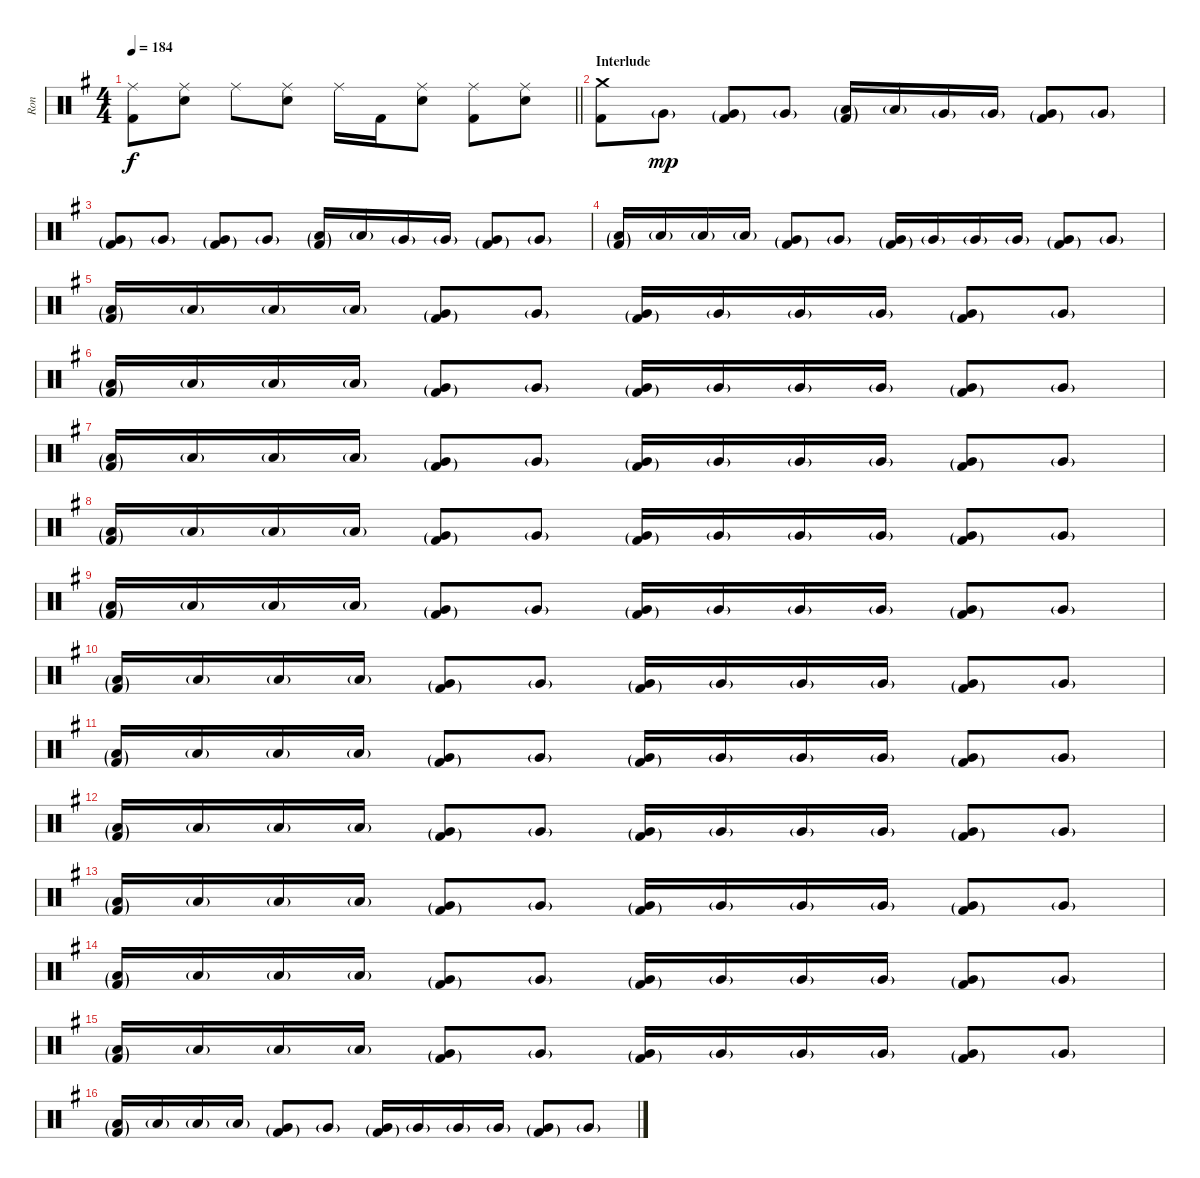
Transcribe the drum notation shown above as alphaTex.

\track ("Ron" "Ron") {instrument percussion}
\staff {score}
\articulation defaults
\ts (4 4)
\tempo 184
\clef neutral
\barLineRight lightlight
\ks eminor
("Ride (middle)" "Kick (hit) 2").8{dy f} ("Ride (middle)" "Electric Snare (hit)").8 "Ride (middle)".8 ("Ride (middle)" "Electric Snare (hit)").8 "Ride (middle)".16 "Kick (hit) 2".16 ("Ride (middle)" "Electric Snare (hit)").8 ("Ride (middle)" "Kick (hit) 2").8 ("Ride (middle)" "Electric Snare (hit)").8 |
\section ("" "Interlude")
("Crash medium (hit)" "Kick (hit) 2").8{volume 16} "Very Low Tom (hit)"{g}.8{dy mp} ("Very Low Tom (hit)"{g} "Kick (hit) 2"{g}).8 "Very Low Tom (hit)"{g}.8 ("Low Tom (hit)"{g} "Kick (hit) 2"{g}).16 "Low Tom (hit)"{g}.16 "Very Low Tom (hit)"{g}.16 "Very Low Tom (hit)"{g}.16 ("Very Low Tom (hit)"{g} "Kick (hit) 2"{g}).8 "Very Low Tom (hit)"{g}.8 |
("Very Low Tom (hit)"{g} "Kick (hit) 2"{g}).8 "Very Low Tom (hit)"{g}.8 ("Very Low Tom (hit)"{g} "Kick (hit) 2"{g}).8 "Very Low Tom (hit)"{g}.8 ("Low Tom (hit)"{g} "Kick (hit) 2"{g}).16 "Low Tom (hit)"{g}.16 "Very Low Tom (hit)"{g}.16 "Very Low Tom (hit)"{g}.16 ("Very Low Tom (hit)"{g} "Kick (hit) 2"{g}).8 "Very Low Tom (hit)"{g}.8 |
("Low Tom (hit)"{g} "Kick (hit) 2"{g}).16 "Low Tom (hit)"{g}.16 "Low Tom (hit)"{g}.16 "Low Tom (hit)"{g}.16 ("Very Low Tom (hit)"{g} "Kick (hit) 2"{g}).8 "Very Low Tom (hit)"{g}.8 ("Very Low Tom (hit)"{g} "Kick (hit) 2"{g}).16 "Very Low Tom (hit)"{g}.16 "Very Low Tom (hit)"{g}.16 "Very Low Tom (hit)"{g}.16 ("Very Low Tom (hit)"{g} "Kick (hit) 2"{g}).8 "Very Low Tom (hit)"{g}.8 |
("Low Tom (hit)"{g} "Kick (hit) 2"{g}).16 "Low Tom (hit)"{g}.16 "Low Tom (hit)"{g}.16 "Low Tom (hit)"{g}.16 ("Very Low Tom (hit)"{g} "Kick (hit) 2"{g}).8 "Very Low Tom (hit)"{g}.8 ("Very Low Tom (hit)"{g} "Kick (hit) 2"{g}).16 "Very Low Tom (hit)"{g}.16 "Very Low Tom (hit)"{g}.16 "Very Low Tom (hit)"{g}.16 ("Very Low Tom (hit)"{g} "Kick (hit) 2"{g}).8 "Very Low Tom (hit)"{g}.8 |
("Low Tom (hit)"{g} "Kick (hit) 2"{g}).16 "Low Tom (hit)"{g}.16 "Low Tom (hit)"{g}.16 "Low Tom (hit)"{g}.16 ("Very Low Tom (hit)"{g} "Kick (hit) 2"{g}).8 "Very Low Tom (hit)"{g}.8 ("Very Low Tom (hit)"{g} "Kick (hit) 2"{g}).16 "Very Low Tom (hit)"{g}.16 "Very Low Tom (hit)"{g}.16 "Very Low Tom (hit)"{g}.16 ("Very Low Tom (hit)"{g} "Kick (hit) 2"{g}).8 "Very Low Tom (hit)"{g}.8 |
("Low Tom (hit)"{g} "Kick (hit) 2"{g}).16 "Low Tom (hit)"{g}.16 "Low Tom (hit)"{g}.16 "Low Tom (hit)"{g}.16 ("Very Low Tom (hit)"{g} "Kick (hit) 2"{g}).8 "Very Low Tom (hit)"{g}.8 ("Very Low Tom (hit)"{g} "Kick (hit) 2"{g}).16 "Very Low Tom (hit)"{g}.16 "Very Low Tom (hit)"{g}.16 "Very Low Tom (hit)"{g}.16 ("Very Low Tom (hit)"{g} "Kick (hit) 2"{g}).8 "Very Low Tom (hit)"{g}.8 |
("Low Tom (hit)"{g} "Kick (hit) 2"{g}).16 "Low Tom (hit)"{g}.16 "Low Tom (hit)"{g}.16 "Low Tom (hit)"{g}.16 ("Very Low Tom (hit)"{g} "Kick (hit) 2"{g}).8 "Very Low Tom (hit)"{g}.8 ("Very Low Tom (hit)"{g} "Kick (hit) 2"{g}).16 "Very Low Tom (hit)"{g}.16 "Very Low Tom (hit)"{g}.16 "Very Low Tom (hit)"{g}.16 ("Very Low Tom (hit)"{g} "Kick (hit) 2"{g}).8 "Very Low Tom (hit)"{g}.8 |
("Low Tom (hit)"{g} "Kick (hit) 2"{g}).16 "Low Tom (hit)"{g}.16 "Low Tom (hit)"{g}.16 "Low Tom (hit)"{g}.16 ("Very Low Tom (hit)"{g} "Kick (hit) 2"{g}).8 "Very Low Tom (hit)"{g}.8 ("Very Low Tom (hit)"{g} "Kick (hit) 2"{g}).16 "Very Low Tom (hit)"{g}.16 "Very Low Tom (hit)"{g}.16 "Very Low Tom (hit)"{g}.16 ("Very Low Tom (hit)"{g} "Kick (hit) 2"{g}).8 "Very Low Tom (hit)"{g}.8 |
("Low Tom (hit)"{g} "Kick (hit) 2"{g}).16 "Low Tom (hit)"{g}.16 "Low Tom (hit)"{g}.16 "Low Tom (hit)"{g}.16 ("Very Low Tom (hit)"{g} "Kick (hit) 2"{g}).8 "Very Low Tom (hit)"{g}.8 ("Very Low Tom (hit)"{g} "Kick (hit) 2"{g}).16 "Very Low Tom (hit)"{g}.16 "Very Low Tom (hit)"{g}.16 "Very Low Tom (hit)"{g}.16 ("Very Low Tom (hit)"{g} "Kick (hit) 2"{g}).8 "Very Low Tom (hit)"{g}.8 |
("Low Tom (hit)"{g} "Kick (hit) 2"{g}).16 "Low Tom (hit)"{g}.16 "Low Tom (hit)"{g}.16 "Low Tom (hit)"{g}.16 ("Very Low Tom (hit)"{g} "Kick (hit) 2"{g}).8 "Very Low Tom (hit)"{g}.8 ("Very Low Tom (hit)"{g} "Kick (hit) 2"{g}).16 "Very Low Tom (hit)"{g}.16 "Very Low Tom (hit)"{g}.16 "Very Low Tom (hit)"{g}.16 ("Very Low Tom (hit)"{g} "Kick (hit) 2"{g}).8 "Very Low Tom (hit)"{g}.8 |
("Low Tom (hit)"{g} "Kick (hit) 2"{g}).16 "Low Tom (hit)"{g}.16 "Low Tom (hit)"{g}.16 "Low Tom (hit)"{g}.16 ("Very Low Tom (hit)"{g} "Kick (hit) 2"{g}).8 "Very Low Tom (hit)"{g}.8 ("Very Low Tom (hit)"{g} "Kick (hit) 2"{g}).16 "Very Low Tom (hit)"{g}.16 "Very Low Tom (hit)"{g}.16 "Very Low Tom (hit)"{g}.16 ("Very Low Tom (hit)"{g} "Kick (hit) 2"{g}).8 "Very Low Tom (hit)"{g}.8 |
("Low Tom (hit)"{g} "Kick (hit) 2"{g}).16 "Low Tom (hit)"{g}.16 "Low Tom (hit)"{g}.16 "Low Tom (hit)"{g}.16 ("Very Low Tom (hit)"{g} "Kick (hit) 2"{g}).8 "Very Low Tom (hit)"{g}.8 ("Very Low Tom (hit)"{g} "Kick (hit) 2"{g}).16 "Very Low Tom (hit)"{g}.16 "Very Low Tom (hit)"{g}.16 "Very Low Tom (hit)"{g}.16 ("Very Low Tom (hit)"{g} "Kick (hit) 2"{g}).8 "Very Low Tom (hit)"{g}.8 |
("Low Tom (hit)"{g} "Kick (hit) 2"{g}).16 "Low Tom (hit)"{g}.16 "Low Tom (hit)"{g}.16 "Low Tom (hit)"{g}.16 ("Very Low Tom (hit)"{g} "Kick (hit) 2"{g}).8 "Very Low Tom (hit)"{g}.8 ("Very Low Tom (hit)"{g} "Kick (hit) 2"{g}).16 "Very Low Tom (hit)"{g}.16 "Very Low Tom (hit)"{g}.16 "Very Low Tom (hit)"{g}.16 ("Very Low Tom (hit)"{g} "Kick (hit) 2"{g}).8 "Very Low Tom (hit)"{g}.8 |
("Low Tom (hit)"{g} "Kick (hit) 2"{g}).16 "Low Tom (hit)"{g}.16 "Low Tom (hit)"{g}.16 "Low Tom (hit)"{g}.16 ("Very Low Tom (hit)"{g} "Kick (hit) 2"{g}).8 "Very Low Tom (hit)"{g}.8 ("Very Low Tom (hit)"{g} "Kick (hit) 2"{g}).16 "Very Low Tom (hit)"{g}.16 "Very Low Tom (hit)"{g}.16 "Very Low Tom (hit)"{g}.16 ("Very Low Tom (hit)"{g} "Kick (hit) 2"{g}).8 "Very Low Tom (hit)"{g}.8 |
("Low Tom (hit)"{g} "Kick (hit) 2"{g}).16 "Low Tom (hit)"{g}.16 "Low Tom (hit)"{g}.16 "Low Tom (hit)"{g}.16 ("Very Low Tom (hit)"{g} "Kick (hit) 2"{g}).8 "Very Low Tom (hit)"{g}.8 ("Very Low Tom (hit)"{g} "Kick (hit) 2"{g}).16 "Very Low Tom (hit)"{g}.16 "Very Low Tom (hit)"{g}.16 "Very Low Tom (hit)"{g}.16 ("Very Low Tom (hit)"{g} "Kick (hit) 2"{g}).8 "Very Low Tom (hit)"{g}.8
